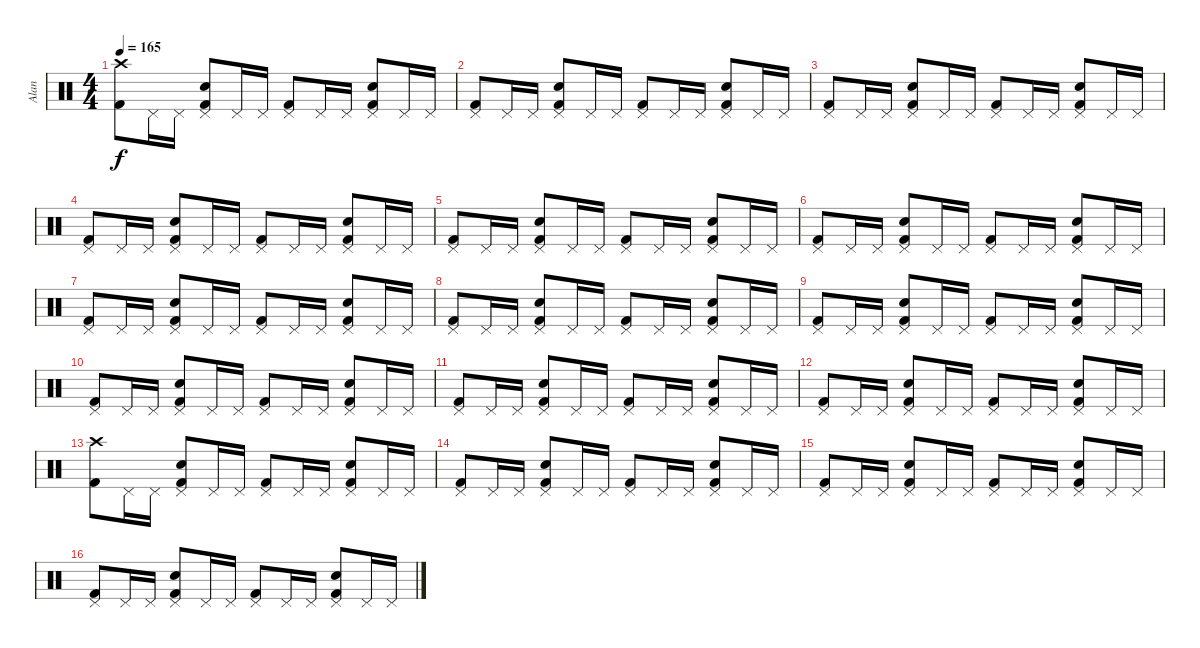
\track ("Alan" "Alan") {instrument percussion}
\staff {score}
\articulation defaults
\ts (4 4)
\tempo 165
\clef neutral
\ks c
("Kick (hit) 2" "Crash high (hit)").8{dy f} "Pedal Hi-Hat (hit)".16 "Pedal Hi-Hat (hit)".16 ("Pedal Hi-Hat (hit)" "Kick (hit) 2" "Snare (hit) 2").8 "Pedal Hi-Hat (hit)".16 "Pedal Hi-Hat (hit)".16 ("Pedal Hi-Hat (hit)" "Kick (hit) 2").8 "Pedal Hi-Hat (hit)".16 "Pedal Hi-Hat (hit)".16 ("Pedal Hi-Hat (hit)" "Kick (hit) 2" "Snare (hit) 2").8 "Pedal Hi-Hat (hit)".16 "Pedal Hi-Hat (hit)".16 |
("Pedal Hi-Hat (hit)" "Kick (hit) 2").8 "Pedal Hi-Hat (hit)".16 "Pedal Hi-Hat (hit)".16 ("Pedal Hi-Hat (hit)" "Kick (hit) 2" "Snare (hit) 2").8 "Pedal Hi-Hat (hit)".16 "Pedal Hi-Hat (hit)".16 ("Pedal Hi-Hat (hit)" "Kick (hit) 2").8 "Pedal Hi-Hat (hit)".16 "Pedal Hi-Hat (hit)".16 ("Pedal Hi-Hat (hit)" "Kick (hit) 2" "Snare (hit) 2").8 "Pedal Hi-Hat (hit)".16 "Pedal Hi-Hat (hit)".16 |
("Kick (hit) 2" "Pedal Hi-Hat (hit)").8 "Pedal Hi-Hat (hit)".16 "Pedal Hi-Hat (hit)".16 ("Pedal Hi-Hat (hit)" "Kick (hit) 2" "Snare (hit) 2").8 "Pedal Hi-Hat (hit)".16 "Pedal Hi-Hat (hit)".16 ("Pedal Hi-Hat (hit)" "Kick (hit) 2").8 "Pedal Hi-Hat (hit)".16 "Pedal Hi-Hat (hit)".16 ("Pedal Hi-Hat (hit)" "Kick (hit) 2" "Snare (hit) 2").8 "Pedal Hi-Hat (hit)".16 "Pedal Hi-Hat (hit)".16 |
("Kick (hit) 2" "Pedal Hi-Hat (hit)").8 "Pedal Hi-Hat (hit)".16 "Pedal Hi-Hat (hit)".16 ("Pedal Hi-Hat (hit)" "Kick (hit) 2" "Snare (hit) 2").8 "Pedal Hi-Hat (hit)".16 "Pedal Hi-Hat (hit)".16 ("Pedal Hi-Hat (hit)" "Kick (hit) 2").8 "Pedal Hi-Hat (hit)".16 "Pedal Hi-Hat (hit)".16 ("Pedal Hi-Hat (hit)" "Kick (hit) 2" "Snare (hit) 2").8 "Pedal Hi-Hat (hit)".16 "Pedal Hi-Hat (hit)".16 |
("Kick (hit) 2" "Pedal Hi-Hat (hit)").8 "Pedal Hi-Hat (hit)".16 "Pedal Hi-Hat (hit)".16 ("Pedal Hi-Hat (hit)" "Kick (hit) 2" "Snare (hit) 2").8 "Pedal Hi-Hat (hit)".16 "Pedal Hi-Hat (hit)".16 ("Pedal Hi-Hat (hit)" "Kick (hit) 2").8 "Pedal Hi-Hat (hit)".16 "Pedal Hi-Hat (hit)".16 ("Pedal Hi-Hat (hit)" "Kick (hit) 2" "Snare (hit) 2").8 "Pedal Hi-Hat (hit)".16 "Pedal Hi-Hat (hit)".16 |
("Kick (hit) 2" "Pedal Hi-Hat (hit)").8 "Pedal Hi-Hat (hit)".16 "Pedal Hi-Hat (hit)".16 ("Pedal Hi-Hat (hit)" "Kick (hit) 2" "Snare (hit) 2").8 "Pedal Hi-Hat (hit)".16 "Pedal Hi-Hat (hit)".16 ("Pedal Hi-Hat (hit)" "Kick (hit) 2").8 "Pedal Hi-Hat (hit)".16 "Pedal Hi-Hat (hit)".16 ("Pedal Hi-Hat (hit)" "Kick (hit) 2" "Snare (hit) 2").8 "Pedal Hi-Hat (hit)".16 "Pedal Hi-Hat (hit)".16 |
("Kick (hit) 2" "Pedal Hi-Hat (hit)").8 "Pedal Hi-Hat (hit)".16 "Pedal Hi-Hat (hit)".16 ("Pedal Hi-Hat (hit)" "Kick (hit) 2" "Snare (hit) 2").8 "Pedal Hi-Hat (hit)".16 "Pedal Hi-Hat (hit)".16 ("Pedal Hi-Hat (hit)" "Kick (hit) 2").8 "Pedal Hi-Hat (hit)".16 "Pedal Hi-Hat (hit)".16 ("Pedal Hi-Hat (hit)" "Kick (hit) 2" "Snare (hit) 2").8 "Pedal Hi-Hat (hit)".16 "Pedal Hi-Hat (hit)".16 |
("Kick (hit) 2" "Pedal Hi-Hat (hit)").8 "Pedal Hi-Hat (hit)".16 "Pedal Hi-Hat (hit)".16 ("Pedal Hi-Hat (hit)" "Kick (hit) 2" "Snare (hit) 2").8 "Pedal Hi-Hat (hit)".16 "Pedal Hi-Hat (hit)".16 ("Pedal Hi-Hat (hit)" "Kick (hit) 2").8 "Pedal Hi-Hat (hit)".16 "Pedal Hi-Hat (hit)".16 ("Pedal Hi-Hat (hit)" "Kick (hit) 2" "Snare (hit) 2").8 "Pedal Hi-Hat (hit)".16 "Pedal Hi-Hat (hit)".16 |
("Kick (hit) 2" "Pedal Hi-Hat (hit)").8 "Pedal Hi-Hat (hit)".16 "Pedal Hi-Hat (hit)".16 ("Pedal Hi-Hat (hit)" "Kick (hit) 2" "Snare (hit) 2").8 "Pedal Hi-Hat (hit)".16 "Pedal Hi-Hat (hit)".16 ("Pedal Hi-Hat (hit)" "Kick (hit) 2").8 "Pedal Hi-Hat (hit)".16 "Pedal Hi-Hat (hit)".16 ("Pedal Hi-Hat (hit)" "Kick (hit) 2" "Snare (hit) 2").8 "Pedal Hi-Hat (hit)".16 "Pedal Hi-Hat (hit)".16 |
("Kick (hit) 2" "Pedal Hi-Hat (hit)").8 "Pedal Hi-Hat (hit)".16 "Pedal Hi-Hat (hit)".16 ("Pedal Hi-Hat (hit)" "Kick (hit) 2" "Snare (hit) 2").8 "Pedal Hi-Hat (hit)".16 "Pedal Hi-Hat (hit)".16 ("Pedal Hi-Hat (hit)" "Kick (hit) 2").8 "Pedal Hi-Hat (hit)".16 "Pedal Hi-Hat (hit)".16 ("Pedal Hi-Hat (hit)" "Kick (hit) 2" "Snare (hit) 2").8 "Pedal Hi-Hat (hit)".16 "Pedal Hi-Hat (hit)".16 |
("Kick (hit) 2" "Pedal Hi-Hat (hit)").8 "Pedal Hi-Hat (hit)".16 "Pedal Hi-Hat (hit)".16 ("Pedal Hi-Hat (hit)" "Kick (hit) 2" "Snare (hit) 2").8 "Pedal Hi-Hat (hit)".16 "Pedal Hi-Hat (hit)".16 ("Pedal Hi-Hat (hit)" "Kick (hit) 2").8 "Pedal Hi-Hat (hit)".16 "Pedal Hi-Hat (hit)".16 ("Pedal Hi-Hat (hit)" "Kick (hit) 2" "Snare (hit) 2").8 "Pedal Hi-Hat (hit)".16 "Pedal Hi-Hat (hit)".16 |
("Kick (hit) 2" "Pedal Hi-Hat (hit)").8 "Pedal Hi-Hat (hit)".16 "Pedal Hi-Hat (hit)".16 ("Pedal Hi-Hat (hit)" "Kick (hit) 2" "Snare (hit) 2").8 "Pedal Hi-Hat (hit)".16 "Pedal Hi-Hat (hit)".16 ("Pedal Hi-Hat (hit)" "Kick (hit) 2").8 "Pedal Hi-Hat (hit)".16 "Pedal Hi-Hat (hit)".16 ("Pedal Hi-Hat (hit)" "Kick (hit) 2" "Snare (hit) 2").8 "Pedal Hi-Hat (hit)".16 "Pedal Hi-Hat (hit)".16 |
("Kick (hit) 2" "Crash high (hit)").8 "Pedal Hi-Hat (hit)".16 "Pedal Hi-Hat (hit)".16 ("Pedal Hi-Hat (hit)" "Kick (hit) 2" "Snare (hit) 2").8 "Pedal Hi-Hat (hit)".16 "Pedal Hi-Hat (hit)".16 ("Pedal Hi-Hat (hit)" "Kick (hit) 2").8 "Pedal Hi-Hat (hit)".16 "Pedal Hi-Hat (hit)".16 ("Pedal Hi-Hat (hit)" "Kick (hit) 2" "Snare (hit) 2").8 "Pedal Hi-Hat (hit)".16 "Pedal Hi-Hat (hit)".16 |
("Kick (hit) 2" "Pedal Hi-Hat (hit)").8 "Pedal Hi-Hat (hit)".16 "Pedal Hi-Hat (hit)".16 ("Pedal Hi-Hat (hit)" "Kick (hit) 2" "Snare (hit) 2").8 "Pedal Hi-Hat (hit)".16 "Pedal Hi-Hat (hit)".16 ("Pedal Hi-Hat (hit)" "Kick (hit) 2").8 "Pedal Hi-Hat (hit)".16 "Pedal Hi-Hat (hit)".16 ("Pedal Hi-Hat (hit)" "Kick (hit) 2" "Snare (hit) 2").8 "Pedal Hi-Hat (hit)".16 "Pedal Hi-Hat (hit)".16 |
("Kick (hit) 2" "Pedal Hi-Hat (hit)").8 "Pedal Hi-Hat (hit)".16 "Pedal Hi-Hat (hit)".16 ("Pedal Hi-Hat (hit)" "Kick (hit) 2" "Snare (hit) 2").8 "Pedal Hi-Hat (hit)".16 "Pedal Hi-Hat (hit)".16 ("Pedal Hi-Hat (hit)" "Kick (hit) 2").8 "Pedal Hi-Hat (hit)".16 "Pedal Hi-Hat (hit)".16 ("Pedal Hi-Hat (hit)" "Kick (hit) 2" "Snare (hit) 2").8 "Pedal Hi-Hat (hit)".16 "Pedal Hi-Hat (hit)".16 |
("Kick (hit) 2" "Pedal Hi-Hat (hit)").8 "Pedal Hi-Hat (hit)".16 "Pedal Hi-Hat (hit)".16 ("Pedal Hi-Hat (hit)" "Kick (hit) 2" "Snare (hit) 2").8 "Pedal Hi-Hat (hit)".16 "Pedal Hi-Hat (hit)".16 ("Pedal Hi-Hat (hit)" "Kick (hit) 2").8 "Pedal Hi-Hat (hit)".16 "Pedal Hi-Hat (hit)".16 ("Pedal Hi-Hat (hit)" "Kick (hit) 2" "Snare (hit) 2").8 "Pedal Hi-Hat (hit)".16 "Pedal Hi-Hat (hit)".16
